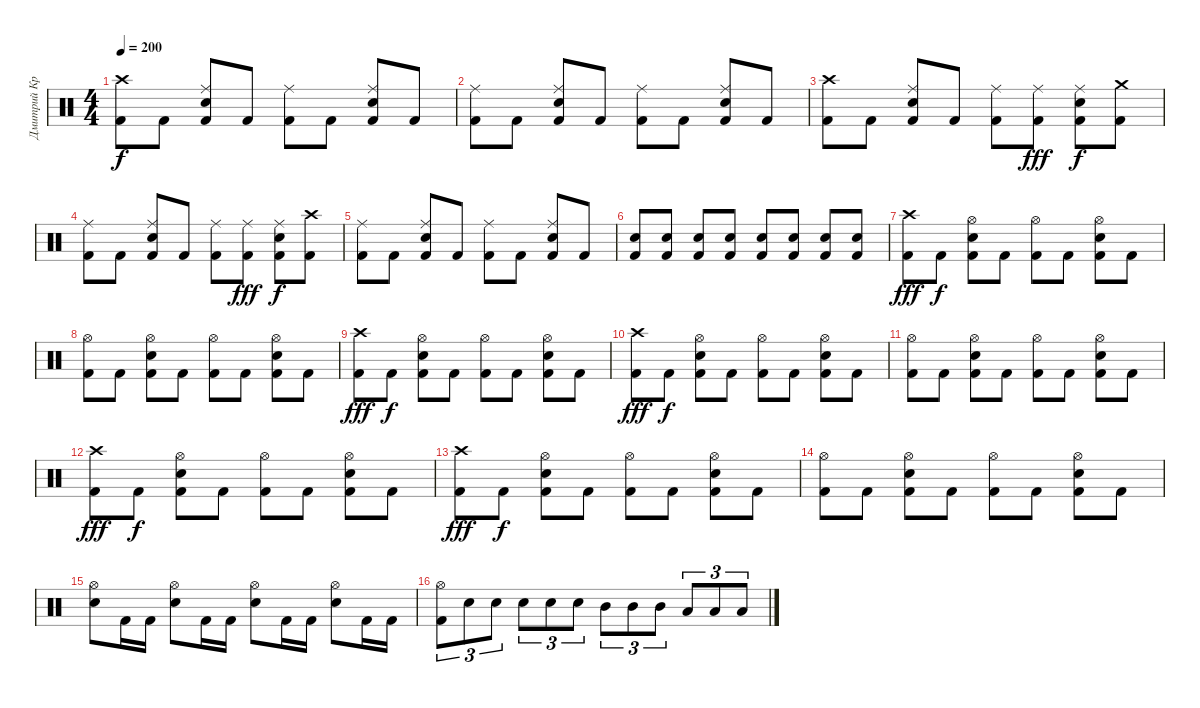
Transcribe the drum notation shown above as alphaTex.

\track ("Дмитрий Кривенков" "Дмитрий Кр") {instrument percussion}
\staff {score}
\articulation defaults
\ts (4 4)
\tempo 200
\clef neutral
\ks c
("Crash high (hit)" "Kick (hit) 2").8{dy f} "Kick (hit) 2".8 ("Ride (middle)" "Electric Snare (hit)" "Kick (hit) 2").8 "Kick (hit) 2".8 ("Ride (middle)" "Kick (hit) 2").8 "Kick (hit) 2".8 ("Ride (middle)" "Electric Snare (hit)" "Kick (hit) 2").8 "Kick (hit) 2".8 |
("Ride (middle)" "Kick (hit) 2").8 "Kick (hit) 2".8 ("Ride (middle)" "Electric Snare (hit)" "Kick (hit) 2").8 "Kick (hit) 2".8 ("Ride (middle)" "Kick (hit) 2").8 "Kick (hit) 2".8 ("Ride (middle)" "Electric Snare (hit)" "Kick (hit) 2").8 "Kick (hit) 2".8 |
("Crash high (hit)" "Kick (hit) 2").8 "Kick (hit) 2".8 ("Ride (middle)" "Electric Snare (hit)" "Kick (hit) 2").8 "Kick (hit) 2".8 ("Ride (middle)" "Kick (hit) 2").8 ("Ride (middle)" "Kick (hit) 2").8{dy fff} ("Ride (middle)" "Electric Snare (hit)" "Kick (hit) 2").8{dy f} ("Crash medium (hit)" "Kick (hit) 2").8 |
("Ride (middle)" "Kick (hit) 2").8 "Kick (hit) 2".8 ("Ride (middle)" "Electric Snare (hit)" "Kick (hit) 2").8 "Kick (hit) 2".8 ("Ride (middle)" "Kick (hit) 2").8 ("Ride (middle)" "Kick (hit) 2").8{dy fff} ("Ride (middle)" "Electric Snare (hit)" "Kick (hit) 2").8{dy f} ("Crash high (hit)" "Kick (hit) 2").8 |
("Ride (middle)" "Kick (hit) 2").8 "Kick (hit) 2".8 ("Ride (middle)" "Electric Snare (hit)" "Kick (hit) 2").8 "Kick (hit) 2".8 ("Ride (middle)" "Kick (hit) 2").8 "Kick (hit) 2".8 ("Ride (middle)" "Electric Snare (hit)" "Kick (hit) 2").8 "Kick (hit) 2".8 |
("Electric Snare (hit)" "Kick (hit) 2").8 ("Electric Snare (hit)" "Kick (hit) 2").8 ("Electric Snare (hit)" "Kick (hit) 2").8 ("Electric Snare (hit)" "Kick (hit) 2").8 ("Electric Snare (hit)" "Kick (hit) 2").8 ("Electric Snare (hit)" "Kick (hit) 2").8 ("Electric Snare (hit)" "Kick (hit) 2").8 ("Electric Snare (hit)" "Kick (hit) 2").8 |
("Crash high (hit)" "Kick (hit) 2").8{dy fff} "Kick (hit) 2".8{dy f} ("Hi-Hat (open)" "Electric Snare (hit)" "Kick (hit) 2").8 "Kick (hit) 2".8 ("Hi-Hat (open)" "Kick (hit) 2").8 "Kick (hit) 2".8 ("Hi-Hat (open)" "Electric Snare (hit)" "Kick (hit) 2").8 "Kick (hit) 2".8 |
("Hi-Hat (open)" "Kick (hit) 2").8 "Kick (hit) 2".8 ("Hi-Hat (open)" "Electric Snare (hit)" "Kick (hit) 2").8 "Kick (hit) 2".8 ("Hi-Hat (open)" "Kick (hit) 2").8 "Kick (hit) 2".8 ("Hi-Hat (open)" "Electric Snare (hit)" "Kick (hit) 2").8 "Kick (hit) 2".8 |
("Crash high (hit)" "Kick (hit) 2").8{dy fff} "Kick (hit) 2".8{dy f} ("Hi-Hat (open)" "Electric Snare (hit)" "Kick (hit) 2").8 "Kick (hit) 2".8 ("Hi-Hat (open)" "Kick (hit) 2").8 "Kick (hit) 2".8 ("Hi-Hat (open)" "Electric Snare (hit)" "Kick (hit) 2").8 "Kick (hit) 2".8 |
("Crash high (hit)" "Kick (hit) 2").8{dy fff} "Kick (hit) 2".8{dy f} ("Hi-Hat (open)" "Electric Snare (hit)" "Kick (hit) 2").8 "Kick (hit) 2".8 ("Hi-Hat (open)" "Kick (hit) 2").8 "Kick (hit) 2".8 ("Hi-Hat (open)" "Electric Snare (hit)" "Kick (hit) 2").8 "Kick (hit) 2".8 |
("Hi-Hat (open)" "Kick (hit) 2").8 "Kick (hit) 2".8 ("Hi-Hat (open)" "Electric Snare (hit)" "Kick (hit) 2").8 "Kick (hit) 2".8 ("Hi-Hat (open)" "Kick (hit) 2").8 "Kick (hit) 2".8 ("Hi-Hat (open)" "Electric Snare (hit)" "Kick (hit) 2").8 "Kick (hit) 2".8 |
("Crash high (hit)" "Kick (hit) 2").8{dy fff} "Kick (hit) 2".8{dy f} ("Hi-Hat (open)" "Electric Snare (hit)" "Kick (hit) 2").8 "Kick (hit) 2".8 ("Hi-Hat (open)" "Kick (hit) 2").8 "Kick (hit) 2".8 ("Hi-Hat (open)" "Electric Snare (hit)" "Kick (hit) 2").8 "Kick (hit) 2".8 |
("Crash high (hit)" "Kick (hit) 2").8{dy fff} "Kick (hit) 2".8{dy f} ("Hi-Hat (open)" "Electric Snare (hit)" "Kick (hit) 2").8 "Kick (hit) 2".8 ("Hi-Hat (open)" "Kick (hit) 2").8 "Kick (hit) 2".8 ("Hi-Hat (open)" "Electric Snare (hit)" "Kick (hit) 2").8 "Kick (hit) 2".8 |
("Hi-Hat (open)" "Kick (hit) 2").8 "Kick (hit) 2".8 ("Hi-Hat (open)" "Electric Snare (hit)" "Kick (hit) 2").8 "Kick (hit) 2".8 ("Hi-Hat (open)" "Kick (hit) 2").8 "Kick (hit) 2".8 ("Hi-Hat (open)" "Electric Snare (hit)" "Kick (hit) 2").8 "Kick (hit) 2".8 |
("Hi-Hat (open)" "Electric Snare (hit)").8 "Kick (hit) 2".16 "Kick (hit) 2".16 ("Hi-Hat (open)" "Electric Snare (hit)").8 "Kick (hit) 2".16 "Kick (hit) 2".16 ("Hi-Hat (open)" "Electric Snare (hit)").8 "Kick (hit) 2".16 "Kick (hit) 2".16 ("Hi-Hat (open)" "Electric Snare (hit)").8 "Kick (hit) 2".16 "Kick (hit) 2".16 |
("Hi-Hat (open)" "Kick (hit) 2").8{tu (3 2)} "Electric Snare (hit)".8{tu (3 2)} "Electric Snare (hit)".8{tu (3 2)} "Electric Snare (hit)".8{tu (3 2)} "Electric Snare (hit)".8{tu (3 2)} "Electric Snare (hit)".8{tu (3 2)} "Mid Tom (hit)".8{tu (3 2)} "Mid Tom (hit)".8{tu (3 2)} "Mid Tom (hit)".8{tu (3 2)} "Low Tom (hit)".8{tu (3 2)} "Low Tom (hit)".8{tu (3 2)} "Low Tom (hit)".8{tu (3 2)}
